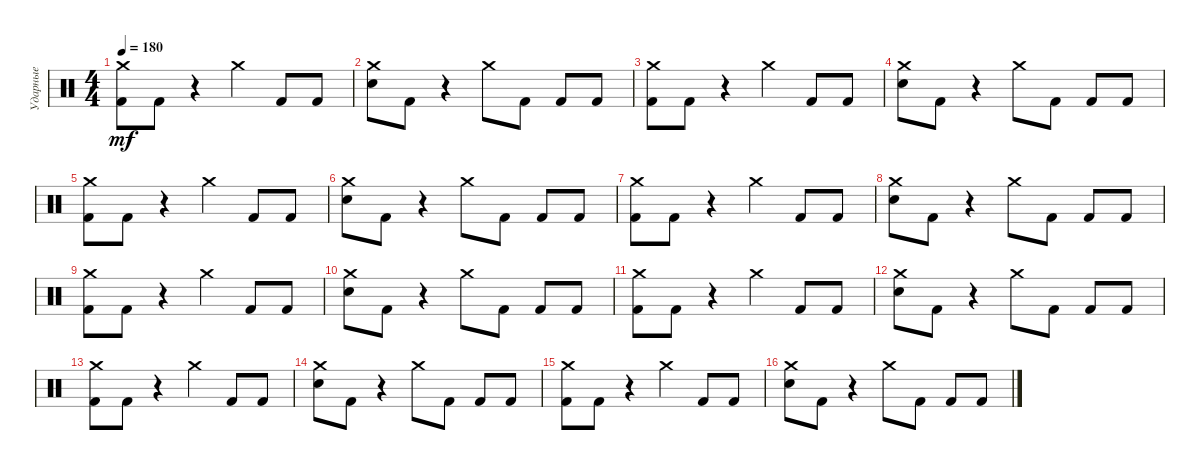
\track ("Ударные" "Ударные") {instrument percussion}
\staff {score}
\articulation defaults
\ts (4 4)
\tempo 180
\clef neutral
\ks c
("Crash medium (hit)" "Kick (hit) 2").8{dy mf} "Kick (hit) 2".8 r.4 "Crash medium (hit)".4 "Kick (hit) 2".8 "Kick (hit) 2".8 |
("Crash medium (hit)" "Electric Snare (hit)").8 "Kick (hit) 2".8 r.4 "Crash medium (hit)".8 "Kick (hit) 2".8 "Kick (hit) 2".8 "Kick (hit) 2".8 |
("Crash medium (hit)" "Kick (hit) 2").8 "Kick (hit) 2".8 r.4 "Crash medium (hit)".4 "Kick (hit) 2".8 "Kick (hit) 2".8 |
("Crash medium (hit)" "Electric Snare (hit)").8 "Kick (hit) 2".8 r.4 "Crash medium (hit)".8 "Kick (hit) 2".8 "Kick (hit) 2".8 "Kick (hit) 2".8 |
("Crash medium (hit)" "Kick (hit) 2").8 "Kick (hit) 2".8 r.4 "Crash medium (hit)".4 "Kick (hit) 2".8 "Kick (hit) 2".8 |
("Crash medium (hit)" "Electric Snare (hit)").8 "Kick (hit) 2".8 r.4 "Crash medium (hit)".8 "Kick (hit) 2".8 "Kick (hit) 2".8 "Kick (hit) 2".8 |
("Crash medium (hit)" "Kick (hit) 2").8 "Kick (hit) 2".8 r.4 "Crash medium (hit)".4 "Kick (hit) 2".8 "Kick (hit) 2".8 |
("Crash medium (hit)" "Electric Snare (hit)").8 "Kick (hit) 2".8 r.4 "Crash medium (hit)".8 "Kick (hit) 2".8 "Kick (hit) 2".8 "Kick (hit) 2".8 |
("Crash medium (hit)" "Kick (hit) 2").8 "Kick (hit) 2".8 r.4 "Crash medium (hit)".4 "Kick (hit) 2".8 "Kick (hit) 2".8 |
("Crash medium (hit)" "Electric Snare (hit)").8 "Kick (hit) 2".8 r.4 "Crash medium (hit)".8 "Kick (hit) 2".8 "Kick (hit) 2".8 "Kick (hit) 2".8 |
("Crash medium (hit)" "Kick (hit) 2").8 "Kick (hit) 2".8 r.4 "Crash medium (hit)".4 "Kick (hit) 2".8 "Kick (hit) 2".8 |
("Crash medium (hit)" "Electric Snare (hit)").8 "Kick (hit) 2".8 r.4 "Crash medium (hit)".8 "Kick (hit) 2".8 "Kick (hit) 2".8 "Kick (hit) 2".8 |
("Crash medium (hit)" "Kick (hit) 2").8 "Kick (hit) 2".8 r.4 "Crash medium (hit)".4 "Kick (hit) 2".8 "Kick (hit) 2".8 |
("Crash medium (hit)" "Electric Snare (hit)").8 "Kick (hit) 2".8 r.4 "Crash medium (hit)".8 "Kick (hit) 2".8 "Kick (hit) 2".8 "Kick (hit) 2".8 |
("Crash medium (hit)" "Kick (hit) 2").8 "Kick (hit) 2".8 r.4 "Crash medium (hit)".4 "Kick (hit) 2".8 "Kick (hit) 2".8 |
("Crash medium (hit)" "Electric Snare (hit)").8 "Kick (hit) 2".8 r.4 "Crash medium (hit)".8 "Kick (hit) 2".8 "Kick (hit) 2".8 "Kick (hit) 2".8
